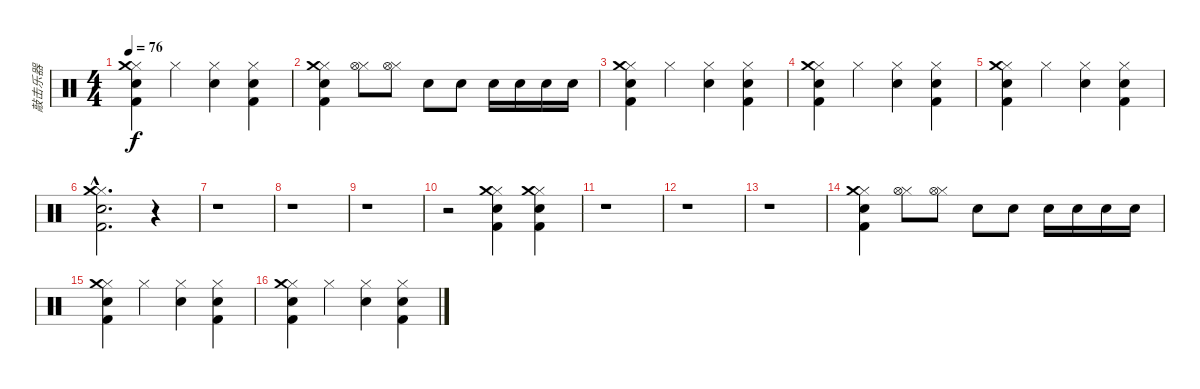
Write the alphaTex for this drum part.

\track ("敲击乐器" "敲击乐器") {instrument percussion}
\staff {score}
\articulation defaults
\ts (4 4)
\tempo 76
\clef neutral
\ks c
("Hi-Hat (closed)" "Snare (hit) 2" "Kick (hit) 2" "Crash medium (hit)").4{dy f} "Hi-Hat (closed)".4 ("Hi-Hat (closed)" "Hand Clap (hit)").4 ("Hi-Hat (closed)" "Snare (hit) 2" "Kick (hit) 2").4 |
("Hi-Hat (closed)" "Snare (hit) 2" "Kick (hit) 2" "Crash medium (hit)").4 ("Hi-Hat (closed)" "Hi-Hat (open)").8 ("Hi-Hat (closed)" "Hi-Hat (open)").8 "Electric Snare (hit)".8 "Electric Snare (hit)".8 "Snare (hit) 2".16 "Snare (hit) 2".16 "Snare (hit) 2".16 "Snare (hit) 2".16 |
("Hi-Hat (closed)" "Snare (hit) 2" "Kick (hit) 2" "Crash medium (hit)").4 "Hi-Hat (closed)".4 ("Hi-Hat (closed)" "Hand Clap (hit)").4 ("Hi-Hat (closed)" "Snare (hit) 2" "Kick (hit) 2").4 |
("Hi-Hat (closed)" "Snare (hit) 2" "Kick (hit) 2" "Crash medium (hit)").4 "Hi-Hat (closed)".4 ("Hi-Hat (closed)" "Hand Clap (hit)").4 ("Hi-Hat (closed)" "Snare (hit) 2" "Kick (hit) 2").4 |
("Hi-Hat (closed)" "Snare (hit) 2" "Kick (hit) 2" "Crash medium (hit)").4 "Hi-Hat (closed)".4 ("Hi-Hat (closed)" "Hand Clap (hit)").4 ("Hi-Hat (closed)" "Snare (hit) 2" "Kick (hit) 2").4 |
("Hi-Hat (closed)"{hac} "Snare (hit) 2"{hac} "Kick (hit) 2"{hac} "Crash medium (hit)"{hac}).2{d} r.4 |
r.1 |
r.1 |
r.1 |
r.2 ("Hi-Hat (closed)" "Snare (hit) 2" "Kick (hit) 2" "Crash medium (hit)").4 ("Hi-Hat (closed)" "Snare (hit) 2" "Kick (hit) 2" "Crash medium (hit)").4 |
r.1 |
r.1 |
r.1 |
("Hi-Hat (closed)" "Snare (hit) 2" "Kick (hit) 2" "Crash medium (hit)").4 ("Hi-Hat (closed)" "Hi-Hat (open)").8 ("Hi-Hat (closed)" "Hi-Hat (open)").8 "Electric Snare (hit)".8 "Electric Snare (hit)".8 "Snare (hit) 2".16 "Snare (hit) 2".16 "Snare (hit) 2".16 "Snare (hit) 2".16 |
("Hi-Hat (closed)" "Snare (hit) 2" "Kick (hit) 2" "Crash medium (hit)").4 "Hi-Hat (closed)".4 ("Hi-Hat (closed)" "Hand Clap (hit)").4 ("Hi-Hat (closed)" "Snare (hit) 2" "Kick (hit) 2").4 |
("Hi-Hat (closed)" "Snare (hit) 2" "Kick (hit) 2" "Crash medium (hit)").4 "Hi-Hat (closed)".4 ("Hi-Hat (closed)" "Hand Clap (hit)").4 ("Hi-Hat (closed)" "Snare (hit) 2" "Kick (hit) 2").4
